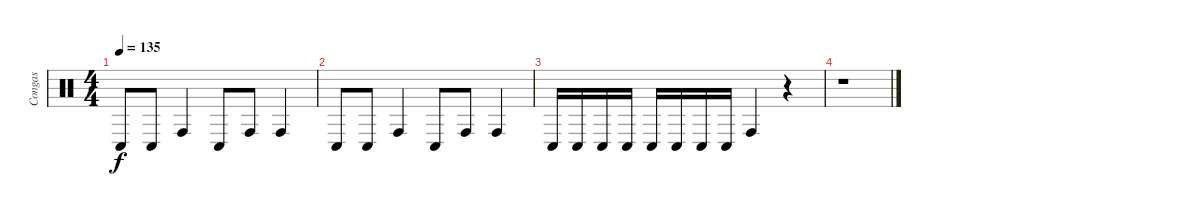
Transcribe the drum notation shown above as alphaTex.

\track ("Congas" "Congas") {instrument percussion}
\staff {score}
\articulation defaults
\ts (4 4)
\tempo 135
\clef neutral
\ks c "Conga low (hit)".8{dy f} "Conga low (hit)".8 "Conga high (hit)".4 "Conga low (hit)".8 "Conga high (hit)".8 "Conga high (hit)".4
|
"Conga low (hit)".8 "Conga low (hit)".8 "Conga high (hit)".4 "Conga low (hit)".8 "Conga high (hit)".8 "Conga high (hit)".4 |
"Conga low (hit)".16 "Conga low (hit)".16 "Conga low (hit)".16 "Conga low (hit)".16 "Conga low (hit)".16 "Conga low (hit)".16 "Conga low (hit)".16 "Conga low (hit)".16 "Conga high (hit)".4 r.4 |
r.1
